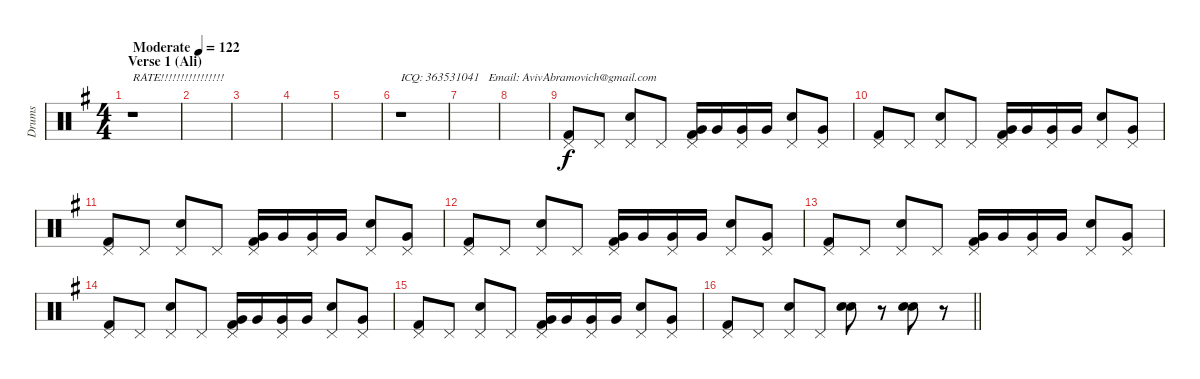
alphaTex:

\track ("Drums" "Drums") {instrument percussion bank 127}
\staff {score}
\articulation defaults
\ts (4 4)
\section ("" "Verse 1 (Ali)")
\tempo (122 "Moderate")
\clef neutral
\ks eminor
r.1{txt "RATE!!!!!!!!!!!!!!!!" dy f} |
|
|
|
|
r.1{txt "ICQ: 363531041   Email: AvivAbramovich@gmail.com"} |
|
|
("Pedal Hi-Hat (hit)" "Kick (hit) 2").8 "Pedal Hi-Hat (hit)".8 ("Pedal Hi-Hat (hit)" "Snare (hit) 2").8 "Pedal Hi-Hat (hit)".8 ("Pedal Hi-Hat (hit)" "Very Low Tom (hit)" "Kick (hit) 2").16 "Very Low Tom (hit)".16 ("Pedal Hi-Hat (hit)" "Very Low Tom (hit)").16 "Very Low Tom (hit)".16 ("Pedal Hi-Hat (hit)" "Snare (hit) 2").8 ("Pedal Hi-Hat (hit)" "Very Low Tom (hit)").8 |
("Pedal Hi-Hat (hit)" "Kick (hit) 2").8 "Pedal Hi-Hat (hit)".8 ("Pedal Hi-Hat (hit)" "Snare (hit) 2").8 "Pedal Hi-Hat (hit)".8 ("Pedal Hi-Hat (hit)" "Very Low Tom (hit)" "Kick (hit) 2").16 "Very Low Tom (hit)".16 ("Pedal Hi-Hat (hit)" "Very Low Tom (hit)").16 "Very Low Tom (hit)".16 ("Pedal Hi-Hat (hit)" "Snare (hit) 2").8 ("Pedal Hi-Hat (hit)" "Very Low Tom (hit)").8 |
("Pedal Hi-Hat (hit)" "Kick (hit) 2").8 "Pedal Hi-Hat (hit)".8 ("Pedal Hi-Hat (hit)" "Snare (hit) 2").8 "Pedal Hi-Hat (hit)".8 ("Pedal Hi-Hat (hit)" "Very Low Tom (hit)" "Kick (hit) 2").16 "Very Low Tom (hit)".16 ("Pedal Hi-Hat (hit)" "Very Low Tom (hit)").16 "Very Low Tom (hit)".16 ("Pedal Hi-Hat (hit)" "Snare (hit) 2").8 ("Pedal Hi-Hat (hit)" "Very Low Tom (hit)").8 |
("Pedal Hi-Hat (hit)" "Kick (hit) 2").8 "Pedal Hi-Hat (hit)".8 ("Pedal Hi-Hat (hit)" "Snare (hit) 2").8 "Pedal Hi-Hat (hit)".8 ("Pedal Hi-Hat (hit)" "Very Low Tom (hit)" "Kick (hit) 2").16 "Very Low Tom (hit)".16 ("Pedal Hi-Hat (hit)" "Very Low Tom (hit)").16 "Very Low Tom (hit)".16 ("Pedal Hi-Hat (hit)" "Snare (hit) 2").8 ("Pedal Hi-Hat (hit)" "Very Low Tom (hit)").8 |
("Pedal Hi-Hat (hit)" "Kick (hit) 2").8 "Pedal Hi-Hat (hit)".8 ("Pedal Hi-Hat (hit)" "Snare (hit) 2").8 "Pedal Hi-Hat (hit)".8 ("Pedal Hi-Hat (hit)" "Very Low Tom (hit)" "Kick (hit) 2").16 "Very Low Tom (hit)".16 ("Pedal Hi-Hat (hit)" "Very Low Tom (hit)").16 "Very Low Tom (hit)".16 ("Pedal Hi-Hat (hit)" "Snare (hit) 2").8 ("Pedal Hi-Hat (hit)" "Very Low Tom (hit)").8 |
("Pedal Hi-Hat (hit)" "Kick (hit) 2").8 "Pedal Hi-Hat (hit)".8 ("Pedal Hi-Hat (hit)" "Snare (hit) 2").8 "Pedal Hi-Hat (hit)".8 ("Pedal Hi-Hat (hit)" "Very Low Tom (hit)" "Kick (hit) 2").16 "Very Low Tom (hit)".16 ("Pedal Hi-Hat (hit)" "Very Low Tom (hit)").16 "Very Low Tom (hit)".16 ("Pedal Hi-Hat (hit)" "Snare (hit) 2").8 ("Pedal Hi-Hat (hit)" "Very Low Tom (hit)").8 |
("Pedal Hi-Hat (hit)" "Kick (hit) 2").8 "Pedal Hi-Hat (hit)".8 ("Pedal Hi-Hat (hit)" "Snare (hit) 2").8 "Pedal Hi-Hat (hit)".8 ("Pedal Hi-Hat (hit)" "Very Low Tom (hit)" "Kick (hit) 2").16 "Very Low Tom (hit)".16 ("Pedal Hi-Hat (hit)" "Very Low Tom (hit)").16 "Very Low Tom (hit)".16 ("Pedal Hi-Hat (hit)" "Snare (hit) 2").8 ("Pedal Hi-Hat (hit)" "Very Low Tom (hit)").8 |
\barLineRight lightlight
("Pedal Hi-Hat (hit)" "Kick (hit) 2").8 "Pedal Hi-Hat (hit)".8 ("Pedal Hi-Hat (hit)" "Snare (hit) 2").8 "Pedal Hi-Hat (hit)".8 ("Snare (hit) 2" "Snare (hit) 2").8 r.8 ("Snare (hit) 2" "Snare (hit) 2").8 r.8
